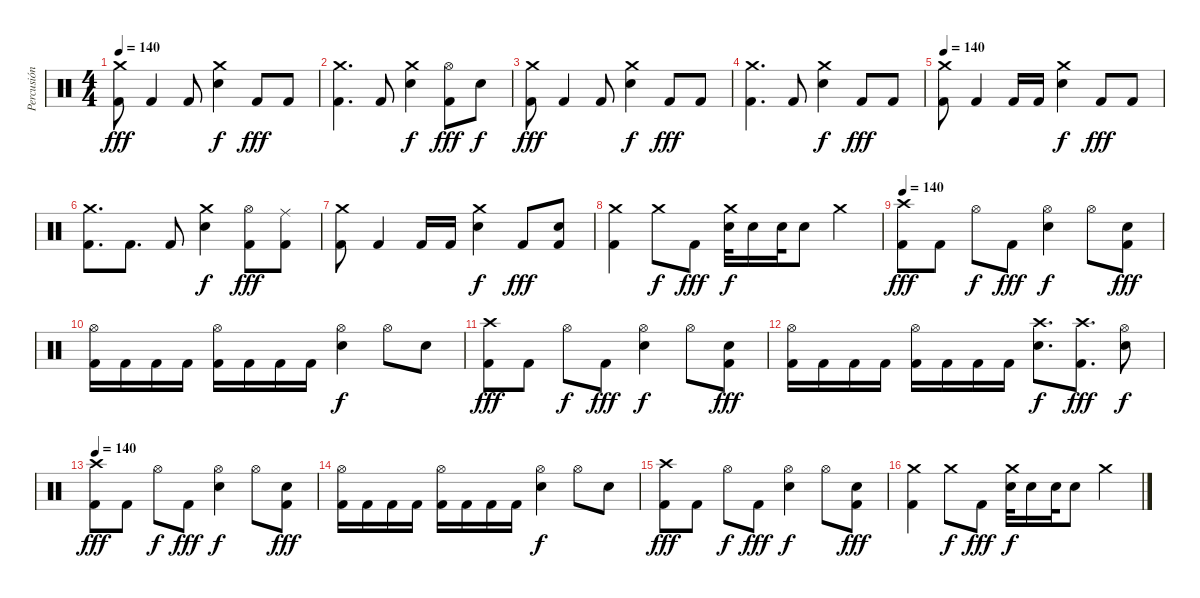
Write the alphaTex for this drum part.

\track ("Percusión" "Percusión") {instrument percussion}
\staff {score}
\articulation defaults
\ts (4 4)
\tempo 140
\clef neutral
\ks c
("Crash medium (hit)" "Kick (hit) 2").8{dy fff} "Kick (hit) 2".4 "Kick (hit) 2".8 ("Crash medium (hit)" "Electric Snare (hit)").4{dy f} "Kick (hit) 2".8{dy fff} "Kick (hit) 2".8 |
("Crash medium (hit)" "Kick (hit) 2").4{d} "Kick (hit) 2".8 ("Crash medium (hit)" "Electric Snare (hit)").4{dy f} ("Hi-Hat (open)" "Kick (hit) 2").8{dy fff} "Electric Snare (hit)".8{dy f} |
("Crash medium (hit)" "Kick (hit) 2").8{dy fff} "Kick (hit) 2".4 "Kick (hit) 2".8 ("Crash medium (hit)" "Electric Snare (hit)").4{dy f} "Kick (hit) 2".8{dy fff} "Kick (hit) 2".8 |
("Crash medium (hit)" "Kick (hit) 2").4{d} "Kick (hit) 2".8 ("Crash medium (hit)" "Electric Snare (hit)").4{dy f} "Kick (hit) 2".8{dy fff} "Kick (hit) 2".8 |
\tempo 140
("Crash medium (hit)" "Kick (hit) 2").8 "Kick (hit) 2".4 "Kick (hit) 2".16 "Kick (hit) 2".16 ("Crash medium (hit)" "Electric Snare (hit)").4{dy f} "Kick (hit) 2".8{dy fff} "Kick (hit) 2".8 |
("Crash medium (hit)" "Kick (hit) 2").8{d} "Kick (hit) 2".8{d} "Kick (hit) 2".8 ("Crash medium (hit)" "Electric Snare (hit)").4{dy f} ("Hi-Hat (open)" "Kick (hit) 2").8{dy fff} ("Ride (middle)" "Kick (hit) 2").8 |
("Crash medium (hit)" "Kick (hit) 2").8 "Kick (hit) 2".4 "Kick (hit) 2".16 "Kick (hit) 2".16 ("Crash medium (hit)" "Electric Snare (hit)").4{dy f} "Kick (hit) 2".8{dy fff} ("Electric Snare (hit)" "Kick (hit) 2").8 |
("Crash medium (hit)" "Kick (hit) 2").4 "Crash medium (hit)".8{dy f} "Kick (hit) 2".8{dy fff} ("Crash medium (hit)" "Electric Snare (hit)").32{dy f} "Electric Snare (hit)".16 "Electric Snare (hit)".32 "Electric Snare (hit)".8 "Crash medium (hit)".4 |
\tempo 140
("Crash high (hit)" "Kick (hit) 2").8{dy fff} "Kick (hit) 2".8 "Hi-Hat (open)".8{dy f} "Kick (hit) 2".8{dy fff} ("Hi-Hat (open)" "Electric Snare (hit)").4{dy f} "Hi-Hat (open)".8 ("Electric Snare (hit)" "Kick (hit) 2").8{dy fff} |
("Hi-Hat (open)" "Kick (hit) 2").16 "Kick (hit) 2".16 "Kick (hit) 2".16 "Kick (hit) 2".16 ("Hi-Hat (open)" "Kick (hit) 2").16 "Kick (hit) 2".16 "Kick (hit) 2".16 "Kick (hit) 2".16 ("Hi-Hat (open)" "Electric Snare (hit)").4{dy f} "Hi-Hat (open)".8 "Electric Snare (hit)".8 |
("Crash high (hit)" "Kick (hit) 2").8{dy fff} "Kick (hit) 2".8 "Hi-Hat (open)".8{dy f} "Kick (hit) 2".8{dy fff} ("Hi-Hat (open)" "Electric Snare (hit)").4{dy f} "Hi-Hat (open)".8 ("Electric Snare (hit)" "Kick (hit) 2").8{dy fff} |
("Hi-Hat (open)" "Kick (hit) 2").16 "Kick (hit) 2".16 "Kick (hit) 2".16 "Kick (hit) 2".16 ("Hi-Hat (open)" "Kick (hit) 2").16 "Kick (hit) 2".16 "Kick (hit) 2".16 "Kick (hit) 2".16 ("Crash high (hit)" "Electric Snare (hit)").8{d dy f} ("Crash high (hit)" "Kick (hit) 2").8{d dy fff} ("Hi-Hat (open)" "Electric Snare (hit)").8{dy f} |
\tempo 140
("Crash high (hit)" "Kick (hit) 2").8{dy fff} "Kick (hit) 2".8 "Hi-Hat (open)".8{dy f} "Kick (hit) 2".8{dy fff} ("Hi-Hat (open)" "Electric Snare (hit)").4{dy f} "Hi-Hat (open)".8 ("Electric Snare (hit)" "Kick (hit) 2").8{dy fff} |
("Hi-Hat (open)" "Kick (hit) 2").16 "Kick (hit) 2".16 "Kick (hit) 2".16 "Kick (hit) 2".16 ("Hi-Hat (open)" "Kick (hit) 2").16 "Kick (hit) 2".16 "Kick (hit) 2".16 "Kick (hit) 2".16 ("Hi-Hat (open)" "Electric Snare (hit)").4{dy f} "Hi-Hat (open)".8 "Electric Snare (hit)".8 |
("Crash high (hit)" "Kick (hit) 2").8{dy fff} "Kick (hit) 2".8 "Hi-Hat (open)".8{dy f} "Kick (hit) 2".8{dy fff} ("Hi-Hat (open)" "Electric Snare (hit)").4{dy f} "Hi-Hat (open)".8 ("Electric Snare (hit)" "Kick (hit) 2").8{dy fff} |
("Crash medium (hit)" "Kick (hit) 2").4 "Crash medium (hit)".8{dy f} "Kick (hit) 2".8{dy fff} ("Crash medium (hit)" "Electric Snare (hit)").32{dy f} "Electric Snare (hit)".16 "Electric Snare (hit)".32 "Electric Snare (hit)".8 "Crash medium (hit)".4
